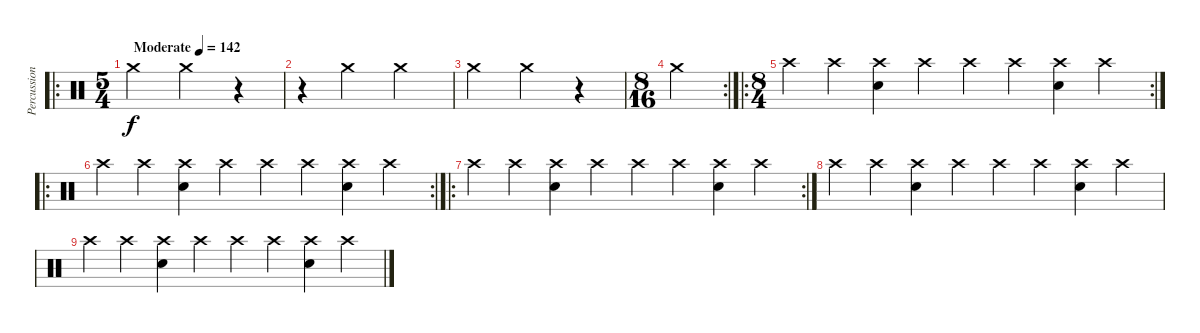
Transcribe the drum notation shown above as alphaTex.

\track ("Percussion" "Percussion") {instrument percussion}
\staff {score}
\articulation defaults
\ro
\ts (5 4)
\tempo (142 "Moderate")
\clef neutral
\ks c "Crash medium (hit)".2{dy f} "Crash medium (hit)".2
r.4 |
r.4 "Crash medium (hit)".2 "Crash medium (hit)".2 |
"Crash medium (hit)".2 "Crash medium (hit)".2 r.4 |
\rc 2
\ts (8 16)
"Crash medium (hit)".4 |
\ro
\rc 2
\ts (8 4)
"Crash high (hit)".4 "Crash high (hit)".4 ("Crash high (hit)" "Snare (hit) 2").4 "Crash high (hit)".4 "Crash high (hit)".4 "Crash high (hit)".4 ("Crash high (hit)" "Electric Snare (hit)").4 "Crash high (hit)".4 |
\ro
\rc 2 "Crash high (hit)".4 "Crash high (hit)".4
("Crash high (hit)" "Snare (hit) 2").4 "Crash high (hit)".4 "Crash high (hit)".4 "Crash high (hit)".4 ("Crash high (hit)" "Electric Snare (hit)").4 "Crash high (hit)".4 |
\ro
\rc 2 "Crash high (hit)".4 "Crash high (hit)".4
("Crash high (hit)" "Snare (hit) 2").4 "Crash high (hit)".4 "Crash high (hit)".4 "Crash high (hit)".4 ("Crash high (hit)" "Electric Snare (hit)").4 "Crash high (hit)".4 |
"Crash high (hit)".4 "Crash high (hit)".4 ("Crash high (hit)" "Snare (hit) 2").4 "Crash high (hit)".4 "Crash high (hit)".4 "Crash high (hit)".4 ("Crash high (hit)" "Electric Snare (hit)").4 "Crash high (hit)".4 |
"Crash high (hit)".4 "Crash high (hit)".4 ("Crash high (hit)" "Snare (hit) 2").4 "Crash high (hit)".4 "Crash high (hit)".4 "Crash high (hit)".4 ("Crash high (hit)" "Electric Snare (hit)").4 "Crash high (hit)".4
